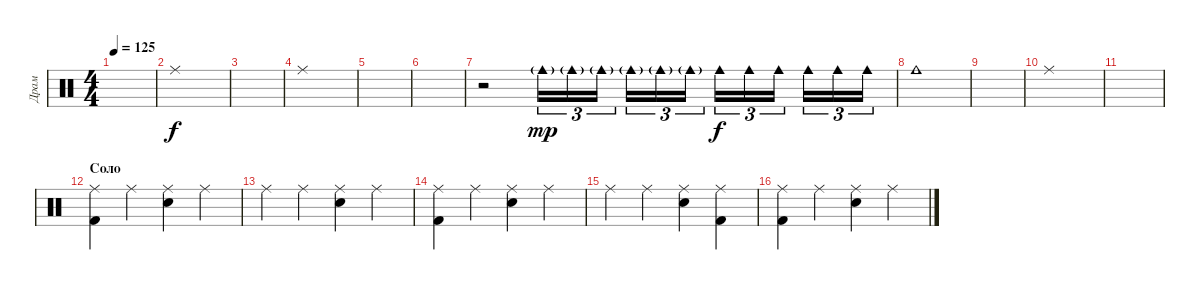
\track ("Драм" "Драм") {instrument percussion}
\staff {score}
\articulation defaults
\ts (4 4)
\tempo 125
\clef neutral
\ks c
|
"Ride (middle)".1 |
|
"Ride (middle)".1 |
|
|
r.2 "Cowbell medium (hit)"{g}.16{tu (3 2) dy mp} "Cowbell medium (hit)"{g}.16{tu (3 2)} "Cowbell medium (hit)"{g}.16{tu (3 2) beam splitsecondary} "Cowbell medium (hit)"{g}.16{tu (3 2)} "Cowbell medium (hit)"{g}.16{tu (3 2)} "Cowbell medium (hit)"{g}.16{tu (3 2)} "Cowbell medium (hit)".16{tu (3 2) dy f} "Cowbell medium (hit)".16{tu (3 2)} "Cowbell medium (hit)".16{tu (3 2) beam splitsecondary} "Cowbell medium (hit)".16{tu (3 2)} "Cowbell medium (hit)".16{tu (3 2)} "Cowbell medium (hit)".16{tu (3 2)} |
"Cowbell medium (hit)".1 |
|
"Ride (middle)".1 |
|
\section ("" "Соло")
("Ride (middle)" "Kick (hit) 2").4 "Ride (middle)".4 ("Ride (middle)" "Snare (hit) 2").4 "Ride (middle)".4 |
"Ride (middle)".4 "Ride (middle)".4 ("Ride (middle)" "Snare (hit) 2").4 "Ride (middle)".4 |
("Ride (middle)" "Kick (hit) 2").4 "Ride (middle)".4 ("Ride (middle)" "Snare (hit) 2").4 "Ride (middle)".4 |
"Ride (middle)".4 "Ride (middle)".4 ("Ride (middle)" "Snare (hit) 2").4 ("Ride (middle)" "Kick (hit) 2").4 |
("Ride (middle)" "Kick (hit) 2").4 "Ride (middle)".4 ("Ride (middle)" "Snare (hit) 2").4 "Ride (middle)".4
